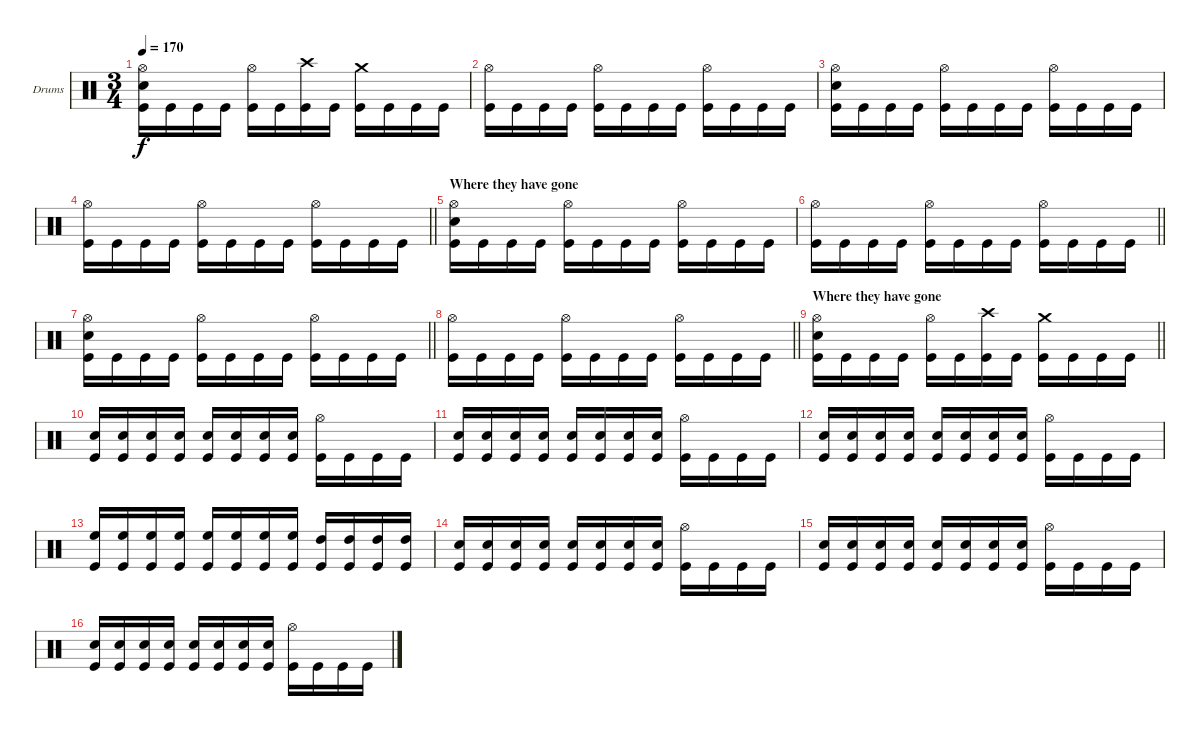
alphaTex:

\bracketExtendMode groupsimilarinstruments
\firstSystemTrackNameOrientation horizontal
\otherSystemsTrackNameOrientation horizontal
\track ("Drumkit" "Drums") {instrument percussion}
\staff {score}
\articulation defaults
\ts (3 4)
\tempo 170
\clef neutral
\ks c
("Hi-Hat (open)" "Snare (hit) 2" "Kick (hit)").16{dy f} "Kick (hit)".16 "Kick (hit)".16 "Kick (hit)".16 ("Hi-Hat (open)" "Kick (hit)").16 "Kick (hit)".16 ("Crash high (hit)" "Kick (hit)").16 "Kick (hit)".16 ("Crash medium (hit)" "Kick (hit)").16 "Kick (hit)".16 "Kick (hit)".16 "Kick (hit)".16 |
("Hi-Hat (open)" "Kick (hit)").16 "Kick (hit)".16 "Kick (hit)".16 "Kick (hit)".16 ("Hi-Hat (open)" "Kick (hit)").16 "Kick (hit)".16 "Kick (hit)".16 "Kick (hit)".16 ("Hi-Hat (open)" "Kick (hit)").16 "Kick (hit)".16 "Kick (hit)".16 "Kick (hit)".16 |
("Hi-Hat (open)" "Snare (hit) 2" "Kick (hit)").16 "Kick (hit)".16 "Kick (hit)".16 "Kick (hit)".16 ("Hi-Hat (open)" "Kick (hit)").16 "Kick (hit)".16 "Kick (hit)".16 "Kick (hit)".16 ("Hi-Hat (open)" "Kick (hit)").16 "Kick (hit)".16 "Kick (hit)".16 "Kick (hit)".16 |
\barLineRight lightlight
("Hi-Hat (open)" "Kick (hit)").16 "Kick (hit)".16 "Kick (hit)".16 "Kick (hit)".16 ("Hi-Hat (open)" "Kick (hit)").16 "Kick (hit)".16 "Kick (hit)".16 "Kick (hit)".16 ("Hi-Hat (open)" "Kick (hit)").16 "Kick (hit)".16 "Kick (hit)".16 "Kick (hit)".16 |
\section ("" "Where they have gone")
("Hi-Hat (open)" "Snare (hit) 2" "Kick (hit)").16 "Kick (hit)".16 "Kick (hit)".16 "Kick (hit)".16 ("Hi-Hat (open)" "Kick (hit)").16 "Kick (hit)".16 "Kick (hit)".16 "Kick (hit)".16 ("Hi-Hat (open)" "Kick (hit)").16 "Kick (hit)".16 "Kick (hit)".16 "Kick (hit)".16 |
\barLineRight lightlight
("Hi-Hat (open)" "Kick (hit)").16 "Kick (hit)".16 "Kick (hit)".16 "Kick (hit)".16 ("Hi-Hat (open)" "Kick (hit)").16 "Kick (hit)".16 "Kick (hit)".16 "Kick (hit)".16 ("Hi-Hat (open)" "Kick (hit)").16 "Kick (hit)".16 "Kick (hit)".16 "Kick (hit)".16 |
\barLineRight lightlight
("Hi-Hat (open)" "Snare (hit) 2" "Kick (hit)").16 "Kick (hit)".16 "Kick (hit)".16 "Kick (hit)".16 ("Hi-Hat (open)" "Kick (hit)").16 "Kick (hit)".16 "Kick (hit)".16 "Kick (hit)".16 ("Hi-Hat (open)" "Kick (hit)").16 "Kick (hit)".16 "Kick (hit)".16 "Kick (hit)".16 |
\barLineRight lightlight
("Hi-Hat (open)" "Kick (hit)").16 "Kick (hit)".16 "Kick (hit)".16 "Kick (hit)".16 ("Hi-Hat (open)" "Kick (hit)").16 "Kick (hit)".16 "Kick (hit)".16 "Kick (hit)".16 ("Hi-Hat (open)" "Kick (hit)").16 "Kick (hit)".16 "Kick (hit)".16 "Kick (hit)".16 |
\section ("" "Where they have gone")
\barLineRight lightlight
("Hi-Hat (open)" "Snare (hit) 2" "Kick (hit)").16 "Kick (hit)".16 "Kick (hit)".16 "Kick (hit)".16 ("Hi-Hat (open)" "Kick (hit)").16 "Kick (hit)".16 ("Crash high (hit)" "Kick (hit)").16 "Kick (hit)".16 ("Crash medium (hit)" "Kick (hit)").16 "Kick (hit)".16 "Kick (hit)".16 "Kick (hit)".16 |
("Snare (hit) 2" "Kick (hit)").16 ("Snare (hit) 2" "Kick (hit)").16 ("Snare (hit) 2" "Kick (hit)").16 ("Snare (hit) 2" "Kick (hit)").16 ("Snare (hit) 2" "Kick (hit)").16 ("Snare (hit) 2" "Kick (hit)").16 ("Snare (hit) 2" "Kick (hit)").16 ("Snare (hit) 2" "Kick (hit)").16 ("Hi-Hat (open)" "Kick (hit)").16 "Kick (hit)".16 "Kick (hit)".16 "Kick (hit)".16 |
("Snare (hit) 2" "Kick (hit)").16 ("Snare (hit) 2" "Kick (hit)").16 ("Snare (hit) 2" "Kick (hit)").16 ("Snare (hit) 2" "Kick (hit)").16 ("Snare (hit) 2" "Kick (hit)").16 ("Snare (hit) 2" "Kick (hit)").16 ("Snare (hit) 2" "Kick (hit)").16 ("Snare (hit) 2" "Kick (hit)").16 ("Hi-Hat (open)" "Kick (hit)").16 "Kick (hit)".16 "Kick (hit)".16 "Kick (hit)".16 |
("Snare (hit) 2" "Kick (hit)").16 ("Snare (hit) 2" "Kick (hit)").16 ("Snare (hit) 2" "Kick (hit)").16 ("Snare (hit) 2" "Kick (hit)").16 ("Snare (hit) 2" "Kick (hit)").16 ("Snare (hit) 2" "Kick (hit)").16 ("Snare (hit) 2" "Kick (hit)").16 ("Snare (hit) 2" "Kick (hit)").16 ("Hi-Hat (open)" "Kick (hit)").16 "Kick (hit)".16 "Kick (hit)".16 "Kick (hit)".16 |
("High Floor Tom (hit)" "Kick (hit)").16 ("High Floor Tom (hit)" "Kick (hit)").16 ("High Floor Tom (hit)" "Kick (hit)").16 ("High Floor Tom (hit)" "Kick (hit)").16 ("High Floor Tom (hit)" "Kick (hit)").16 ("High Floor Tom (hit)" "Kick (hit)").16 ("High Floor Tom (hit)" "Kick (hit)").16 ("High Floor Tom (hit)" "Kick (hit)").16 ("High Tom (hit)" "Kick (hit)").16 ("High Tom (hit)" "Kick (hit)").16 ("High Tom (hit)" "Kick (hit)").16 ("High Tom (hit)" "Kick (hit)").16 |
("Snare (hit) 2" "Kick (hit)").16 ("Snare (hit) 2" "Kick (hit)").16 ("Snare (hit) 2" "Kick (hit)").16 ("Snare (hit) 2" "Kick (hit)").16 ("Snare (hit) 2" "Kick (hit)").16 ("Snare (hit) 2" "Kick (hit)").16 ("Snare (hit) 2" "Kick (hit)").16 ("Snare (hit) 2" "Kick (hit)").16 ("Hi-Hat (open)" "Kick (hit)").16 "Kick (hit)".16 "Kick (hit)".16 "Kick (hit)".16 |
("Snare (hit) 2" "Kick (hit)").16 ("Snare (hit) 2" "Kick (hit)").16 ("Snare (hit) 2" "Kick (hit)").16 ("Snare (hit) 2" "Kick (hit)").16 ("Snare (hit) 2" "Kick (hit)").16 ("Snare (hit) 2" "Kick (hit)").16 ("Snare (hit) 2" "Kick (hit)").16 ("Snare (hit) 2" "Kick (hit)").16 ("Hi-Hat (open)" "Kick (hit)").16 "Kick (hit)".16 "Kick (hit)".16 "Kick (hit)".16 |
("Snare (hit) 2" "Kick (hit)").16 ("Snare (hit) 2" "Kick (hit)").16 ("Snare (hit) 2" "Kick (hit)").16 ("Snare (hit) 2" "Kick (hit)").16 ("Snare (hit) 2" "Kick (hit)").16 ("Snare (hit) 2" "Kick (hit)").16 ("Snare (hit) 2" "Kick (hit)").16 ("Snare (hit) 2" "Kick (hit)").16 ("Hi-Hat (open)" "Kick (hit)").16 "Kick (hit)".16 "Kick (hit)".16 "Kick (hit)".16
